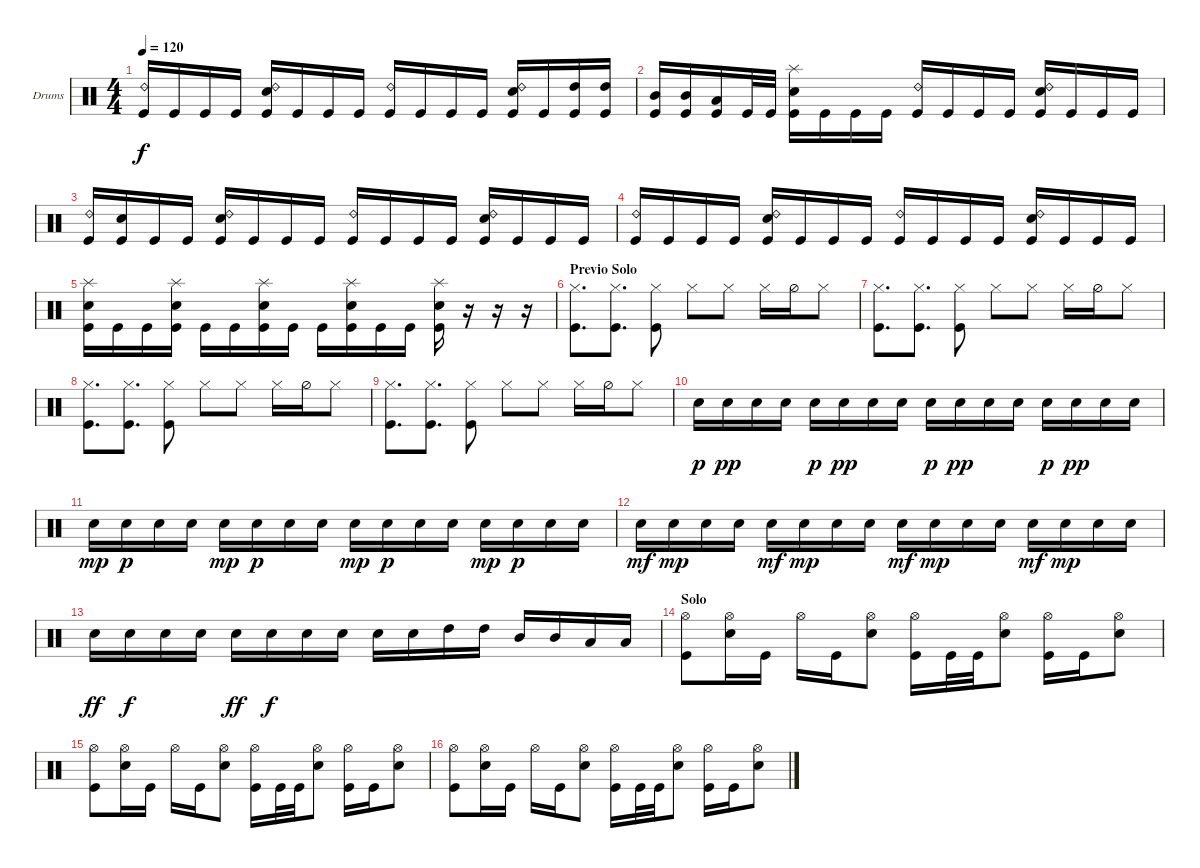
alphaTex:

\bracketExtendMode groupsimilarinstruments
\firstSystemTrackNameOrientation horizontal
\otherSystemsTrackNameOrientation horizontal
\track ("Drumkit" "Drums") {instrument percussion}
\staff {score}
\articulation defaults
\ts (4 4)
\tempo 120
\clef neutral
\ks c
("Kick (hit)" "Ride (bell) 2").16{dy f} "Kick (hit)".16 "Kick (hit)".16 "Kick (hit)".16 ("Kick (hit)" "Ride (bell) 2" "Snare (hit) 2").16 "Kick (hit)".16 "Kick (hit)".16 "Kick (hit)".16 ("Kick (hit)" "Ride (bell) 2").16 "Kick (hit)".16 "Kick (hit)".16 "Kick (hit)".16 ("Kick (hit)" "Ride (bell) 2" "Snare (hit) 2").16 "Kick (hit)".16 ("Kick (hit)" "High Tom (hit)").16 ("Kick (hit)" "High Tom (hit)").16 |
("Mid Tom (hit)" "Kick (hit)").16 ("Mid Tom (hit)" "Kick (hit)").16 ("Low Tom (hit)" "Kick (hit)").16 "Kick (hit)".32 "Kick (hit)".32 ("Snare (hit) 2" "Kick (hit)" "Splash (hit)").16 "Kick (hit)".16 "Kick (hit)".16 "Kick (hit)".16 ("Kick (hit)" "Ride (bell) 2").16 "Kick (hit)".16 "Kick (hit)".16 "Kick (hit)".16 ("Snare (hit) 2" "Kick (hit)" "Ride (bell) 2").16 "Kick (hit)".16 "Kick (hit)".16 "Kick (hit)".16 |
("Kick (hit)" "Ride (bell) 2").16 ("Kick (hit)" "Snare (hit) 2").16 "Kick (hit)".16 "Kick (hit)".16 ("Kick (hit)" "Ride (bell) 2" "Snare (hit) 2").16 "Kick (hit)".16 "Kick (hit)".16 "Kick (hit)".16 ("Kick (hit)" "Ride (bell) 2").16 "Kick (hit)".16 "Kick (hit)".16 "Kick (hit)".16 ("Kick (hit)" "Ride (bell) 2" "Snare (hit) 2").16 "Kick (hit)".16 "Kick (hit)".16 "Kick (hit)".16 |
("Kick (hit)" "Ride (bell) 2").16 "Kick (hit)".16 "Kick (hit)".16 "Kick (hit)".16 ("Kick (hit)" "Ride (bell) 2" "Snare (hit) 2").16 "Kick (hit)".16 "Kick (hit)".16 "Kick (hit)".16 ("Kick (hit)" "Ride (bell) 2").16 "Kick (hit)".16 "Kick (hit)".16 "Kick (hit)".16 ("Kick (hit)" "Ride (bell) 2" "Snare (hit) 2").16 "Kick (hit)".16 "Kick (hit)".16 "Kick (hit)".16 |
("Kick (hit)" "Snare (hit) 2" "Splash (hit)").16 "Kick (hit)".16 "Kick (hit)".16 ("Kick (hit)" "Snare (hit) 2" "Splash (hit)").16 "Kick (hit)".16 "Kick (hit)".16 ("Kick (hit)" "Snare (hit) 2" "Splash (hit)").16 "Kick (hit)".16 "Kick (hit)".16 ("Kick (hit)" "Snare (hit) 2" "Splash (hit)").16 "Kick (hit)".16 "Kick (hit)".16 ("Kick (hit)" "Snare (hit) 2" "Splash (hit)").16 r.16 r.16 r.16 |
\section ("" "Previo Solo")
("Hi-Hat (closed)" "Kick (hit)").8{d} ("Hi-Hat (closed)" "Kick (hit)").8{d} ("Hi-Hat (closed)" "Kick (hit)").8 "Hi-Hat (closed)".8 "Hi-Hat (closed)".8 "Hi-Hat (closed)".16 "Hi-Hat (half)".16 "Hi-Hat (closed)".8 |
("Hi-Hat (closed)" "Kick (hit)").8{d} ("Hi-Hat (closed)" "Kick (hit)").8{d} ("Hi-Hat (closed)" "Kick (hit)").8 "Hi-Hat (closed)".8 "Hi-Hat (closed)".8 "Hi-Hat (closed)".16 "Hi-Hat (half)".16 "Hi-Hat (closed)".8 |
("Hi-Hat (closed)" "Kick (hit)").8{d} ("Hi-Hat (closed)" "Kick (hit)").8{d} ("Hi-Hat (closed)" "Kick (hit)").8 "Hi-Hat (closed)".8 "Hi-Hat (closed)".8 "Hi-Hat (closed)".16 "Hi-Hat (half)".16 "Hi-Hat (closed)".8 |
("Hi-Hat (closed)" "Kick (hit)").8{d} ("Hi-Hat (closed)" "Kick (hit)").8{d} ("Hi-Hat (closed)" "Kick (hit)").8 "Hi-Hat (closed)".8 "Hi-Hat (closed)".8 "Hi-Hat (closed)".16 "Hi-Hat (half)".16 "Hi-Hat (closed)".8 |
"Snare (hit) 2".16{dy p} "Snare (hit) 2".16{dy pp} "Snare (hit) 2".16 "Snare (hit) 2".16 "Snare (hit) 2".16{dy p} "Snare (hit) 2".16{dy pp} "Snare (hit) 2".16 "Snare (hit) 2".16 "Snare (hit) 2".16{dy p} "Snare (hit) 2".16{dy pp} "Snare (hit) 2".16 "Snare (hit) 2".16 "Snare (hit) 2".16{dy p} "Snare (hit) 2".16{dy pp} "Snare (hit) 2".16 "Snare (hit) 2".16 |
"Snare (hit) 2".16{dy mp} "Snare (hit) 2".16{dy p} "Snare (hit) 2".16 "Snare (hit) 2".16 "Snare (hit) 2".16{dy mp} "Snare (hit) 2".16{dy p} "Snare (hit) 2".16 "Snare (hit) 2".16 "Snare (hit) 2".16{dy mp} "Snare (hit) 2".16{dy p} "Snare (hit) 2".16 "Snare (hit) 2".16 "Snare (hit) 2".16{dy mp} "Snare (hit) 2".16{dy p} "Snare (hit) 2".16 "Snare (hit) 2".16 |
"Snare (hit) 2".16{dy mf} "Snare (hit) 2".16{dy mp} "Snare (hit) 2".16 "Snare (hit) 2".16 "Snare (hit) 2".16{dy mf} "Snare (hit) 2".16{dy mp} "Snare (hit) 2".16 "Snare (hit) 2".16 "Snare (hit) 2".16{dy mf} "Snare (hit) 2".16{dy mp} "Snare (hit) 2".16 "Snare (hit) 2".16 "Snare (hit) 2".16{dy mf} "Snare (hit) 2".16{dy mp} "Snare (hit) 2".16 "Snare (hit) 2".16 |
"Snare (hit) 2".16{dy ff} "Snare (hit) 2".16{dy f} "Snare (hit) 2".16 "Snare (hit) 2".16 "Snare (hit) 2".16{dy ff} "Snare (hit) 2".16{dy f} "Snare (hit) 2".16 "Snare (hit) 2".16 "Snare (hit) 2".16 "Snare (hit) 2".16 "High Tom (hit)".16 "High Tom (hit)".16 "Mid Tom (hit)".16 "Mid Tom (hit)".16 "Low Tom (hit)".16 "Low Tom (hit)".16 |
\section ("" "Solo")
("Kick (hit)" "Hi-Hat (open)").8 ("Snare (hit) 2" "Hi-Hat (open)").16 "Kick (hit)".16 "Hi-Hat (open)".16 "Kick (hit)".16 ("Hi-Hat (open)" "Snare (hit) 2").8 ("Hi-Hat (open)" "Kick (hit)").16 "Kick (hit)".32 "Kick (hit)".32 ("Hi-Hat (open)" "Snare (hit) 2").8 ("Hi-Hat (open)" "Kick (hit)").16 "Kick (hit)".16 ("Hi-Hat (open)" "Snare (hit) 2").8 |
("Kick (hit)" "Hi-Hat (open)").8 ("Snare (hit) 2" "Hi-Hat (open)").16 "Kick (hit)".16 "Hi-Hat (open)".16 "Kick (hit)".16 ("Hi-Hat (open)" "Snare (hit) 2").8 ("Hi-Hat (open)" "Kick (hit)").16 "Kick (hit)".32 "Kick (hit)".32 ("Hi-Hat (open)" "Snare (hit) 2").8 ("Hi-Hat (open)" "Kick (hit)").16 "Kick (hit)".16 ("Hi-Hat (open)" "Snare (hit) 2").8 |
("Kick (hit)" "Hi-Hat (open)").8 ("Snare (hit) 2" "Hi-Hat (open)").16 "Kick (hit)".16 "Hi-Hat (open)".16 "Kick (hit)".16 ("Hi-Hat (open)" "Snare (hit) 2").8 ("Hi-Hat (open)" "Kick (hit)").16 "Kick (hit)".32 "Kick (hit)".32 ("Hi-Hat (open)" "Snare (hit) 2").8 ("Hi-Hat (open)" "Kick (hit)").16 "Kick (hit)".16 ("Hi-Hat (open)" "Snare (hit) 2").8
